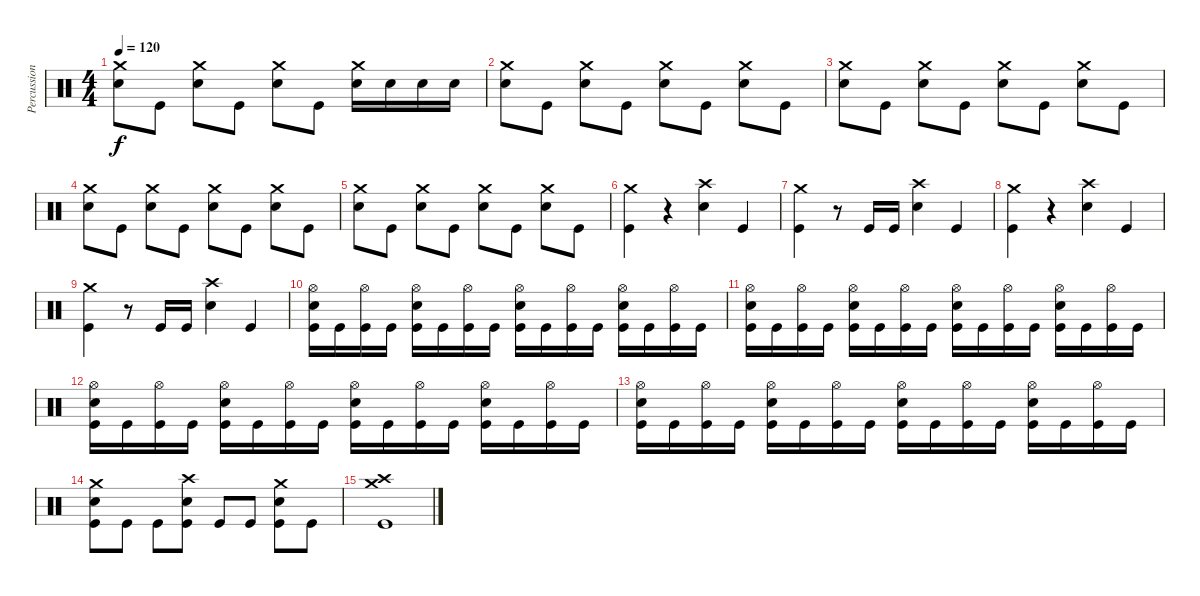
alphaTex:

\track ("Percussion" "Percussion") {instrument percussion}
\staff {score}
\articulation defaults
\ts (4 4)
\tempo 120
\clef neutral
\ks c
("Crash medium (hit)" "Snare (hit) 2").8{dy f} "Kick (hit)".8 ("Crash medium (hit)" "Snare (hit) 2").8 "Kick (hit)".8 ("Crash medium (hit)" "Snare (hit) 2").8 "Kick (hit)".8 ("Crash medium (hit)" "Snare (hit) 2").16 "Snare (hit) 2".16 "Snare (hit) 2".16 "Snare (hit) 2".16 |
("Crash medium (hit)" "Snare (hit) 2").8 "Kick (hit)".8 ("Crash medium (hit)" "Snare (hit) 2").8 "Kick (hit)".8 ("Crash medium (hit)" "Snare (hit) 2").8 "Kick (hit)".8 ("Crash medium (hit)" "Snare (hit) 2").8 "Kick (hit)".8 |
("Crash medium (hit)" "Snare (hit) 2").8 "Kick (hit)".8 ("Crash medium (hit)" "Snare (hit) 2").8 "Kick (hit)".8 ("Crash medium (hit)" "Snare (hit) 2").8 "Kick (hit)".8 ("Crash medium (hit)" "Snare (hit) 2").8 "Kick (hit)".8 |
("Crash medium (hit)" "Snare (hit) 2").8 "Kick (hit)".8 ("Crash medium (hit)" "Snare (hit) 2").8 "Kick (hit)".8 ("Crash medium (hit)" "Snare (hit) 2").8 "Kick (hit)".8 ("Crash medium (hit)" "Snare (hit) 2").8 "Kick (hit)".8 |
("Crash medium (hit)" "Snare (hit) 2").8 "Kick (hit)".8 ("Crash medium (hit)" "Snare (hit) 2").8 "Kick (hit)".8 ("Crash medium (hit)" "Snare (hit) 2").8 "Kick (hit)".8 ("Crash medium (hit)" "Snare (hit) 2").8 "Kick (hit)".8 |
("Crash medium (hit)" "Kick (hit)").4 r.4 ("Crash high (hit)" "Snare (hit) 2").4 "Kick (hit)".4 |
("Crash medium (hit)" "Kick (hit)").4 r.8 "Kick (hit)".16 "Kick (hit)".16 ("Crash high (hit)" "Snare (hit) 2").4 "Kick (hit)".4 |
("Crash medium (hit)" "Kick (hit)").4 r.4 ("Crash high (hit)" "Snare (hit) 2").4 "Kick (hit)".4 |
("Crash medium (hit)" "Kick (hit)").4 r.8 "Kick (hit)".16 "Kick (hit)".16 ("Crash high (hit)" "Snare (hit) 2").4 "Kick (hit)".4 |
("Hi-Hat (open)" "Snare (hit) 2" "Kick (hit)").16 "Kick (hit)".16 ("Hi-Hat (open)" "Kick (hit)").16 "Kick (hit)".16 ("Hi-Hat (open)" "Snare (hit) 2" "Kick (hit)").16 "Kick (hit)".16 ("Hi-Hat (open)" "Kick (hit)").16 "Kick (hit)".16 ("Hi-Hat (open)" "Snare (hit) 2" "Kick (hit)").16 "Kick (hit)".16 ("Hi-Hat (open)" "Kick (hit)").16 "Kick (hit)".16 ("Hi-Hat (open)" "Snare (hit) 2" "Kick (hit)").16 "Kick (hit)".16 ("Hi-Hat (open)" "Kick (hit)").16 "Kick (hit)".16 |
("Hi-Hat (open)" "Snare (hit) 2" "Kick (hit)").16 "Kick (hit)".16 ("Hi-Hat (open)" "Kick (hit)").16 "Kick (hit)".16 ("Hi-Hat (open)" "Snare (hit) 2" "Kick (hit)").16 "Kick (hit)".16 ("Hi-Hat (open)" "Kick (hit)").16 "Kick (hit)".16 ("Hi-Hat (open)" "Snare (hit) 2" "Kick (hit)").16 "Kick (hit)".16 ("Hi-Hat (open)" "Kick (hit)").16 "Kick (hit)".16 ("Hi-Hat (open)" "Snare (hit) 2" "Kick (hit)").16 "Kick (hit)".16 ("Hi-Hat (open)" "Kick (hit)").16 "Kick (hit)".16 |
("Hi-Hat (open)" "Snare (hit) 2" "Kick (hit)").16 "Kick (hit)".16 ("Hi-Hat (open)" "Kick (hit)").16 "Kick (hit)".16 ("Hi-Hat (open)" "Snare (hit) 2" "Kick (hit)").16 "Kick (hit)".16 ("Hi-Hat (open)" "Kick (hit)").16 "Kick (hit)".16 ("Hi-Hat (open)" "Snare (hit) 2" "Kick (hit)").16 "Kick (hit)".16 ("Hi-Hat (open)" "Kick (hit)").16 "Kick (hit)".16 ("Hi-Hat (open)" "Snare (hit) 2" "Kick (hit)").16 "Kick (hit)".16 ("Hi-Hat (open)" "Kick (hit)").16 "Kick (hit)".16 |
("Hi-Hat (open)" "Snare (hit) 2" "Kick (hit)").16 "Kick (hit)".16 ("Hi-Hat (open)" "Kick (hit)").16 "Kick (hit)".16 ("Hi-Hat (open)" "Snare (hit) 2" "Kick (hit)").16 "Kick (hit)".16 ("Hi-Hat (open)" "Kick (hit)").16 "Kick (hit)".16 ("Hi-Hat (open)" "Snare (hit) 2" "Kick (hit)").16 "Kick (hit)".16 ("Hi-Hat (open)" "Kick (hit)").16 "Kick (hit)".16 ("Hi-Hat (open)" "Snare (hit) 2" "Kick (hit)").16 "Kick (hit)".16 ("Hi-Hat (open)" "Kick (hit)").16 "Kick (hit)".16 |
("Crash medium (hit)" "Snare (hit) 2" "Kick (hit)").8 "Kick (hit)".8 "Kick (hit)".8 ("Crash high (hit)" "Snare (hit) 2" "Kick (hit)").8 "Kick (hit)".8 "Kick (hit)".8 ("Crash medium (hit)" "Snare (hit) 2" "Kick (hit)").8 "Kick (hit)".8 |
("Crash medium (hit)" "Crash high (hit)" "Kick (hit)").1
